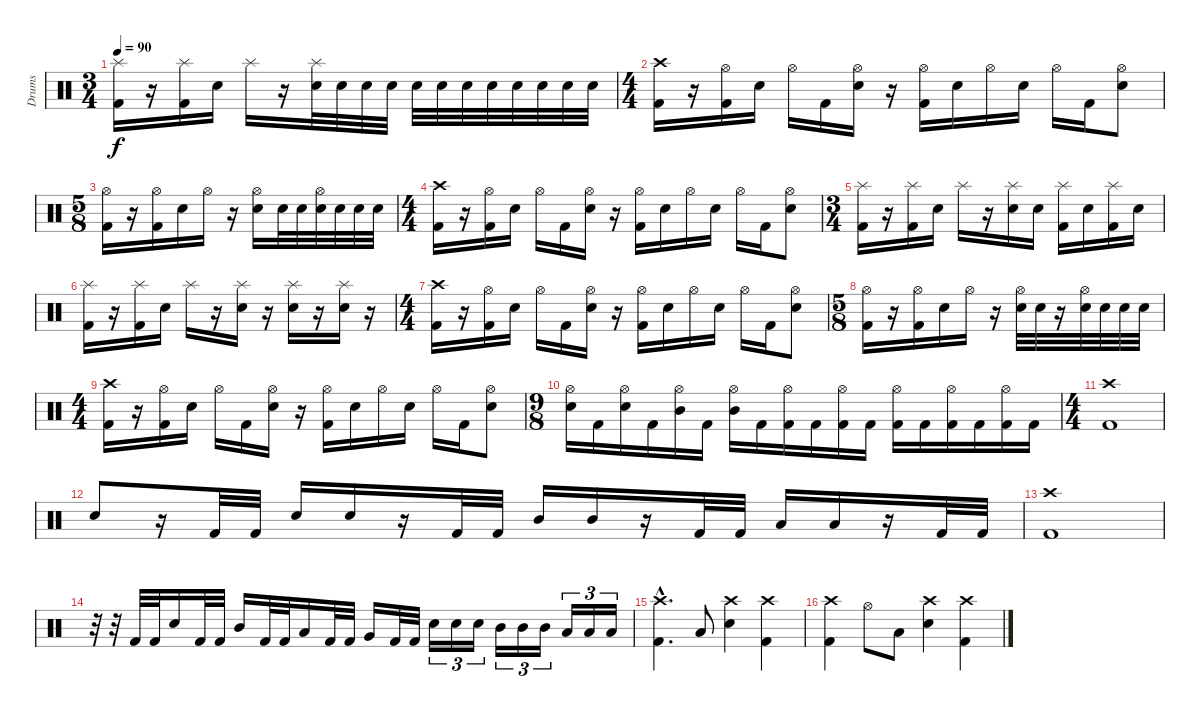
\track ("Drums" "Drums") {instrument percussion}
\staff {score}
\articulation defaults
\ts (3 4)
\tempo 90
\clef neutral
\ks c
("Splash (hit)" "Kick (hit) 2").16{dy f} r.16 ("Splash (hit)" "Kick (hit) 2").16 "Electric Snare (hit)".16 "Splash (hit)".16 r.16 ("Splash (hit)" "Electric Snare (hit)").32 "Electric Snare (hit)".32 "Electric Snare (hit)".32 "Electric Snare (hit)".32 "Electric Snare (hit)".32 "Electric Snare (hit)".32 "Electric Snare (hit)".32 "Electric Snare (hit)".32 "Electric Snare (hit)".32 "Electric Snare (hit)".32 "Electric Snare (hit)".32 "Electric Snare (hit)".32 |
\ts (4 4)
("Kick (hit) 2" "Crash high (hit)").16 r.16 ("Hi-Hat (open)" "Kick (hit) 2").16 "Electric Snare (hit)".16 "Hi-Hat (open)".16 "Kick (hit) 2".16 ("Hi-Hat (open)" "Electric Snare (hit)").16 r.16 ("Hi-Hat (open)" "Kick (hit) 2").16 "Electric Snare (hit)".16 "Hi-Hat (open)".16 "Electric Snare (hit)".16 "Hi-Hat (open)".16 "Kick (hit) 2".16 ("Hi-Hat (open)" "Electric Snare (hit)").8 |
\ts (5 8)
("Hi-Hat (open)" "Kick (hit) 2").16 r.16 ("Hi-Hat (open)" "Kick (hit) 2").16 "Electric Snare (hit)".16 "Hi-Hat (open)".16 r.16 ("Hi-Hat (open)" "Electric Snare (hit)").16 "Electric Snare (hit)".32 "Electric Snare (hit)".32 ("Hi-Hat (open)" "Electric Snare (hit)").32 "Electric Snare (hit)".32 "Electric Snare (hit)".32 "Electric Snare (hit)".32 |
\ts (4 4)
("Kick (hit) 2" "Crash high (hit)").16 r.16 ("Hi-Hat (open)" "Kick (hit) 2").16 "Electric Snare (hit)".16 "Hi-Hat (open)".16 "Kick (hit) 2".16 ("Hi-Hat (open)" "Electric Snare (hit)").16 r.16 ("Hi-Hat (open)" "Kick (hit) 2").16 "Electric Snare (hit)".16 "Hi-Hat (open)".16 "Electric Snare (hit)".16 "Hi-Hat (open)".16 "Kick (hit) 2".16 ("Hi-Hat (open)" "Electric Snare (hit)").8 |
\ts (3 4)
("Splash (hit)" "Kick (hit) 2").16 r.16 ("Splash (hit)" "Kick (hit) 2").16 "Electric Snare (hit)".16 "Splash (hit)".16 r.16 ("Splash (hit)" "Electric Snare (hit)").16 "Electric Snare (hit)".16 ("Splash (hit)" "Kick (hit) 2").16 "Electric Snare (hit)".16 ("Splash (hit)" "Kick (hit) 2").16 "Electric Snare (hit)".16 |
("Splash (hit)" "Kick (hit) 2").16 r.16 ("Splash (hit)" "Kick (hit) 2").16 "Electric Snare (hit)".16 "Splash (hit)".16 r.16 ("Splash (hit)" "Electric Snare (hit)").16 r.16 ("Splash (hit)" "Electric Snare (hit)").16 r.16 ("Splash (hit)" "Electric Snare (hit)").16 r.16 |
\ts (4 4)
("Kick (hit) 2" "Crash high (hit)").16 r.16 ("Hi-Hat (open)" "Kick (hit) 2").16 "Electric Snare (hit)".16 "Hi-Hat (open)".16 "Kick (hit) 2".16 ("Hi-Hat (open)" "Electric Snare (hit)").16 r.16 ("Hi-Hat (open)" "Kick (hit) 2").16 "Electric Snare (hit)".16 "Hi-Hat (open)".16 "Electric Snare (hit)".16 "Hi-Hat (open)".16 "Kick (hit) 2".16 ("Hi-Hat (open)" "Electric Snare (hit)").8 |
\ts (5 8)
("Hi-Hat (open)" "Kick (hit) 2").16 r.16 ("Hi-Hat (open)" "Kick (hit) 2").16 "Electric Snare (hit)".16 "Hi-Hat (open)".16 r.16 ("Hi-Hat (open)" "Electric Snare (hit)").32 "Electric Snare (hit)".32 r.16 ("Hi-Hat (open)" "Electric Snare (hit)").32 "Electric Snare (hit)".32 "Electric Snare (hit)".32 "Electric Snare (hit)".32 |
\ts (4 4)
("Kick (hit) 2" "Crash high (hit)").16 r.16 ("Hi-Hat (open)" "Kick (hit) 2").16 "Electric Snare (hit)".16 "Hi-Hat (open)".16 "Kick (hit) 2".16 ("Hi-Hat (open)" "Electric Snare (hit)").16 r.16 ("Hi-Hat (open)" "Kick (hit) 2").16 "Electric Snare (hit)".16 "Hi-Hat (open)".16 "Electric Snare (hit)".16 "Hi-Hat (open)".16 "Kick (hit) 2".16 ("Hi-Hat (open)" "Electric Snare (hit)").8 |
\ts (9 8)
("Hi-Hat (open)" "Electric Snare (hit)").16 "Kick (hit) 2".16 ("Hi-Hat (open)" "Electric Snare (hit)").16 "Kick (hit) 2".16 ("Hi-Hat (open)" "Mid Tom (hit)").16 "Kick (hit) 2".16 ("Hi-Hat (open)" "Mid Tom (hit)").16 "Kick (hit) 2".16 ("Hi-Hat (open)" "Kick (hit) 2").16 "Kick (hit) 2".16 ("Hi-Hat (open)" "Kick (hit) 2").16 "Kick (hit) 2".16 ("Hi-Hat (open)" "Kick (hit) 2").16 "Kick (hit) 2".16 ("Hi-Hat (open)" "Kick (hit) 2").16 "Kick (hit) 2".16 ("Hi-Hat (open)" "Kick (hit) 2").16 "Kick (hit) 2".16 |
\ts (4 4)
("Crash high (hit)" "Kick (hit) 2").1 |
"Snare (hit) 2".8 r.16 "Kick (hit) 2".32 "Kick (hit) 2".32 "Snare (hit) 2".16 "Snare (hit) 2".16 r.16 "Kick (hit) 2".32 "Kick (hit) 2".32 "Mid Tom (hit)".16 "Mid Tom (hit)".16 r.16 "Kick (hit) 2".32 "Kick (hit) 2".32 "Low Tom (hit)".16 "Low Tom (hit)".16 r.16 "Kick (hit) 2".32 "Kick (hit) 2".32 |
("Crash high (hit)" "Kick (hit) 2").1 |
r.32 r.32 "Kick (hit) 2".32 "Kick (hit) 2".32 "Electric Snare (hit)".16 "Kick (hit) 2".32 "Kick (hit) 2".32 "Mid Tom (hit)".16 "Kick (hit) 2".32 "Kick (hit) 2".32 "Low Tom (hit)".16 "Kick (hit) 2".32 "Kick (hit) 2".32 "Very Low Tom (hit)".16 "Kick (hit) 2".32 "Kick (hit) 2".32 "Electric Snare (hit)".16{tu (3 2)} "Electric Snare (hit)".16{tu (3 2)} "Electric Snare (hit)".16{tu (3 2)} "Mid Tom (hit)".16{tu (3 2)} "Mid Tom (hit)".16{tu (3 2)} "Mid Tom (hit)".16{tu (3 2)} "Low Tom (hit)".16{tu (3 2)} "Low Tom (hit)".16{tu (3 2)} "Low Tom (hit)".16{tu (3 2)} |
("Crash high (hit)"{hac} "Kick (hit) 2"{hac}).4{d} "Low Tom (hit)".8 ("Crash high (hit)" "Electric Snare (hit)").4 ("Crash high (hit)" "Kick (hit) 2").4 |
("Crash high (hit)" "Kick (hit) 2").4 "Hi-Hat (open)".8 "Low Tom (hit)".8 ("Crash high (hit)" "Electric Snare (hit)").4 ("Crash high (hit)" "Kick (hit) 2").4
